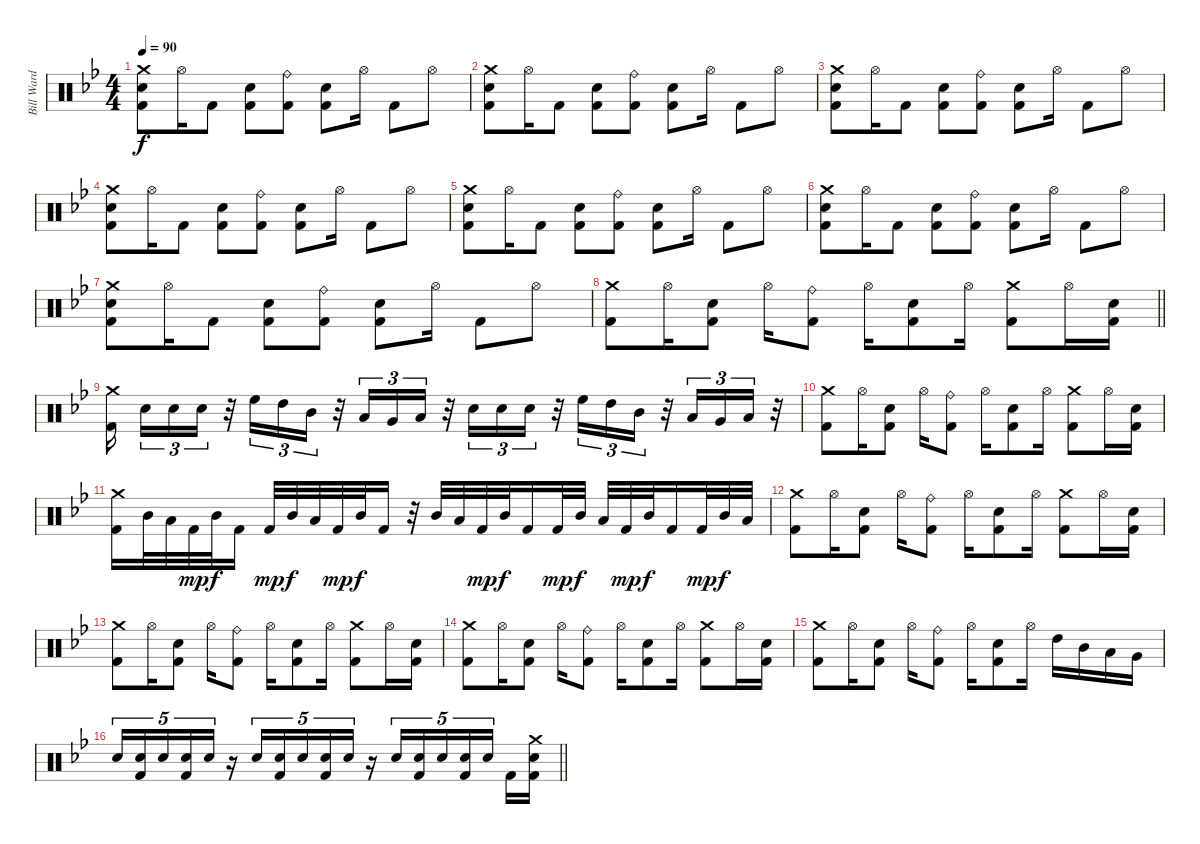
\track ("Bill Ward" "Bill Ward") {instrument percussion}
\staff {score}
\articulation defaults
\ts (4 4)
\tempo 90
\clef neutral
\ks bb
("Crash medium (hit)" "Electric Snare (hit)" "Kick (hit) 2").8{dy f} "Hi-Hat (open)".16 "Kick (hit) 2".8 ("Electric Snare (hit)" "Kick (hit) 2").8 ("Ride (bell)" "Kick (hit) 2").8 ("Electric Snare (hit)" "Kick (hit) 2").8 "Hi-Hat (open)".16 "Kick (hit) 2".8 "Hi-Hat (open)".8 |
("Crash medium (hit)" "Electric Snare (hit)" "Kick (hit) 2").8 "Hi-Hat (open)".16 "Kick (hit) 2".8 ("Electric Snare (hit)" "Kick (hit) 2").8 ("Ride (bell)" "Kick (hit) 2").8 ("Electric Snare (hit)" "Kick (hit) 2").8 "Hi-Hat (open)".16 "Kick (hit) 2".8 "Hi-Hat (open)".8 |
("Crash medium (hit)" "Electric Snare (hit)" "Kick (hit) 2").8 "Hi-Hat (open)".16 "Kick (hit) 2".8 ("Electric Snare (hit)" "Kick (hit) 2").8 ("Ride (bell)" "Kick (hit) 2").8 ("Electric Snare (hit)" "Kick (hit) 2").8 "Hi-Hat (open)".16 "Kick (hit) 2".8 "Hi-Hat (open)".8 |
("Crash medium (hit)" "Electric Snare (hit)" "Kick (hit) 2").8 "Hi-Hat (open)".16 "Kick (hit) 2".8 ("Electric Snare (hit)" "Kick (hit) 2").8 ("Ride (bell)" "Kick (hit) 2").8 ("Electric Snare (hit)" "Kick (hit) 2").8 "Hi-Hat (open)".16 "Kick (hit) 2".8 "Hi-Hat (open)".8 |
("Crash medium (hit)" "Electric Snare (hit)" "Kick (hit) 2").8 "Hi-Hat (open)".16 "Kick (hit) 2".8 ("Electric Snare (hit)" "Kick (hit) 2").8 ("Ride (bell)" "Kick (hit) 2").8 ("Electric Snare (hit)" "Kick (hit) 2").8 "Hi-Hat (open)".16 "Kick (hit) 2".8 "Hi-Hat (open)".8 |
("Crash medium (hit)" "Electric Snare (hit)" "Kick (hit) 2").8 "Hi-Hat (open)".16 "Kick (hit) 2".8 ("Electric Snare (hit)" "Kick (hit) 2").8 ("Ride (bell)" "Kick (hit) 2").8 ("Electric Snare (hit)" "Kick (hit) 2").8 "Hi-Hat (open)".16 "Kick (hit) 2".8 "Hi-Hat (open)".8 |
("Crash medium (hit)" "Electric Snare (hit)" "Kick (hit) 2").8 "Hi-Hat (open)".16 "Kick (hit) 2".8 ("Electric Snare (hit)" "Kick (hit) 2").8 ("Ride (bell)" "Kick (hit) 2").8 ("Electric Snare (hit)" "Kick (hit) 2").8 "Hi-Hat (open)".16 "Kick (hit) 2".8 "Hi-Hat (open)".8 |
\barLineRight lightlight
("Crash medium (hit)" "Kick (hit) 2").8 "Hi-Hat (open)".16 ("Electric Snare (hit)" "Kick (hit) 2").8 "Hi-Hat (open)".16 ("Ride (bell)" "Kick (hit) 2").8 "Hi-Hat (open)".16 ("Electric Snare (hit)" "Kick (hit) 2").8 "Hi-Hat (open)".16 ("Crash medium (hit)" "Kick (hit) 2").8 "Hi-Hat (open)".16 ("Electric Snare (hit)" "Kick (hit) 2").16 |
("Crash medium (hit)" "Kick (hit) 2").16{beam splitsecondary} "Electric Snare (hit)".16{tu (3 2)} "Electric Snare (hit)".16{tu (3 2)} "Electric Snare (hit)".16{tu (3 2)} r.32 "High Floor Tom (hit)".16{tu (3 2)} "High Tom (hit)".16{tu (3 2)} "Mid Tom (hit)".16{tu (3 2)} r.32 "Low Tom (hit)".16{tu (3 2)} "Very Low Tom (hit)".16{tu (3 2)} "Low Floor Tom (hit)".16{tu (3 2)} r.32 "Electric Snare (hit)".16{tu (3 2)} "Electric Snare (hit)".16{tu (3 2)} "Electric Snare (hit)".16{tu (3 2)} r.32 "High Floor Tom (hit)".16{tu (3 2)} "High Tom (hit)".16{tu (3 2)} "Mid Tom (hit)".16{tu (3 2)} r.32 "Low Tom (hit)".16{tu (3 2)} "Very Low Tom (hit)".16{tu (3 2)} "Low Floor Tom (hit)".16{tu (3 2)} r.32 |
("Crash medium (hit)" "Kick (hit) 2").8 "Hi-Hat (open)".16 ("Electric Snare (hit)" "Kick (hit) 2").8 "Hi-Hat (open)".16 ("Ride (bell)" "Kick (hit) 2").8 "Hi-Hat (open)".16 ("Electric Snare (hit)" "Kick (hit) 2").8 "Hi-Hat (open)".16 ("Crash medium (hit)" "Kick (hit) 2").8 "Hi-Hat (open)".16 ("Electric Snare (hit)" "Kick (hit) 2").16 |
("Crash medium (hit)" "Kick (hit) 2").16 "Mid Tom (hit)".32 "Low Tom (hit)".32 "Kick (hit) 2".32{dy mp} "Mid Tom (hit)".32{dy f} "Kick (hit) 2".16 "Kick (hit) 2".32{dy mp} "Mid Tom (hit)".32{dy f} "Low Tom (hit)".32 "Kick (hit) 2".32{dy mp} "Mid Tom (hit)".32{dy f} "Kick (hit) 2".16 r.32 "Mid Tom (hit)".32 "Low Tom (hit)".32 "Kick (hit) 2".32{dy mp} "Mid Tom (hit)".32{dy f} "Kick (hit) 2".16 "Kick (hit) 2".32{dy mp} "Mid Tom (hit)".32{dy f} "Low Tom (hit)".32 "Kick (hit) 2".32{dy mp} "Mid Tom (hit)".32{dy f} "Kick (hit) 2".16 "Kick (hit) 2".32{dy mp} "Mid Tom (hit)".32{dy f} "Low Tom (hit)".32 |
("Crash medium (hit)" "Kick (hit) 2").8 "Hi-Hat (open)".16 ("Electric Snare (hit)" "Kick (hit) 2").8 "Hi-Hat (open)".16 ("Ride (bell)" "Kick (hit) 2").8 "Hi-Hat (open)".16 ("Electric Snare (hit)" "Kick (hit) 2").8 "Hi-Hat (open)".16 ("Crash medium (hit)" "Kick (hit) 2").8 "Hi-Hat (open)".16 ("Electric Snare (hit)" "Kick (hit) 2").16 |
("Crash medium (hit)" "Kick (hit) 2").8 "Hi-Hat (open)".16 ("Electric Snare (hit)" "Kick (hit) 2").8 "Hi-Hat (open)".16 ("Ride (bell)" "Kick (hit) 2").8 "Hi-Hat (open)".16 ("Electric Snare (hit)" "Kick (hit) 2").8 "Hi-Hat (open)".16 ("Crash medium (hit)" "Kick (hit) 2").8 "Hi-Hat (open)".16 ("Electric Snare (hit)" "Kick (hit) 2").16 |
("Crash medium (hit)" "Kick (hit) 2").8 "Hi-Hat (open)".16 ("Electric Snare (hit)" "Kick (hit) 2").8 "Hi-Hat (open)".16 ("Ride (bell)" "Kick (hit) 2").8 "Hi-Hat (open)".16 ("Electric Snare (hit)" "Kick (hit) 2").8 "Hi-Hat (open)".16 ("Crash medium (hit)" "Kick (hit) 2").8 "Hi-Hat (open)".16 ("Electric Snare (hit)" "Kick (hit) 2").16 |
("Crash medium (hit)" "Kick (hit) 2").8 "Hi-Hat (open)".16 ("Electric Snare (hit)" "Kick (hit) 2").8 "Hi-Hat (open)".16 ("Ride (bell)" "Kick (hit) 2").8 "Hi-Hat (open)".16 ("Electric Snare (hit)" "Kick (hit) 2").8 "Hi-Hat (open)".16 "High Tom (hit)".16 "Mid Tom (hit)".16 "Low Tom (hit)".16 "Very Low Tom (hit)".16 |
\barLineRight lightlight "Snare (hit) 2".16{tu (5 4)}
("Snare (hit) 2" "Kick (hit) 2").16{tu (5 4)} "Snare (hit) 2".16{tu (5 4)} ("Snare (hit) 2" "Kick (hit) 2").16{tu (5 4)} "Snare (hit) 2".16{tu (5 4)} r.16 "Snare (hit) 2".16{tu (5 4)} ("Snare (hit) 2" "Kick (hit) 2").16{tu (5 4)} "Snare (hit) 2".16{tu (5 4)} ("Snare (hit) 2" "Kick (hit) 2").16{tu (5 4)} "Snare (hit) 2".16{tu (5 4)} r.16 "Snare (hit) 2".16{tu (5 4)} ("Snare (hit) 2" "Kick (hit) 2").16{tu (5 4)} "Snare (hit) 2".16{tu (5 4)} ("Snare (hit) 2" "Kick (hit) 2").16{tu (5 4)} "Snare (hit) 2".16{tu (5 4) beam splitsecondary} "Kick (hit) 2".16 ("Crash medium (hit)" "Snare (hit) 2" "Kick (hit) 2").16
